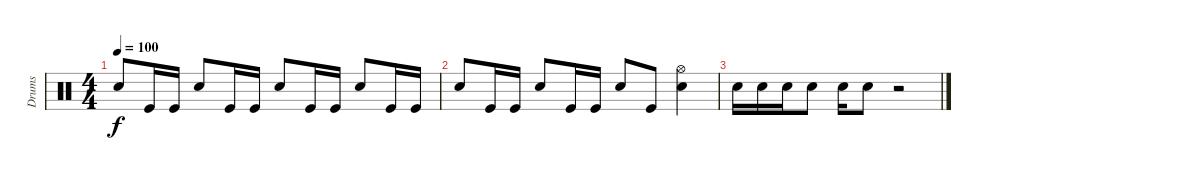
\track ("Drums" "Drums") {instrument percussion}
\staff {score}
\articulation defaults
\ts (4 4)
\tempo 100
\clef neutral
\ks c "Snare (hit) 2".8{dy f} "Kick (hit)".16 "Kick (hit)".16 "Snare (hit) 2".8 "Kick (hit)".16 "Kick (hit)".16 "Snare (hit) 2".8 "Kick (hit)".16 "Kick (hit)".16 "Snare (hit) 2".8 "Kick (hit)".16 "Kick (hit)".16
|
"Snare (hit) 2".8 "Kick (hit)".16 "Kick (hit)".16 "Snare (hit) 2".8 "Kick (hit)".16 "Kick (hit)".16 "Snare (hit) 2".8 "Kick (hit)".8 ("Hi-Hat (open)" "Snare (hit) 2").4 |
"Snare (hit) 2".16 "Snare (hit) 2".16 "Snare (hit) 2".16 "Snare (hit) 2".8 "Snare (hit) 2".16 "Snare (hit) 2".8 r.2
